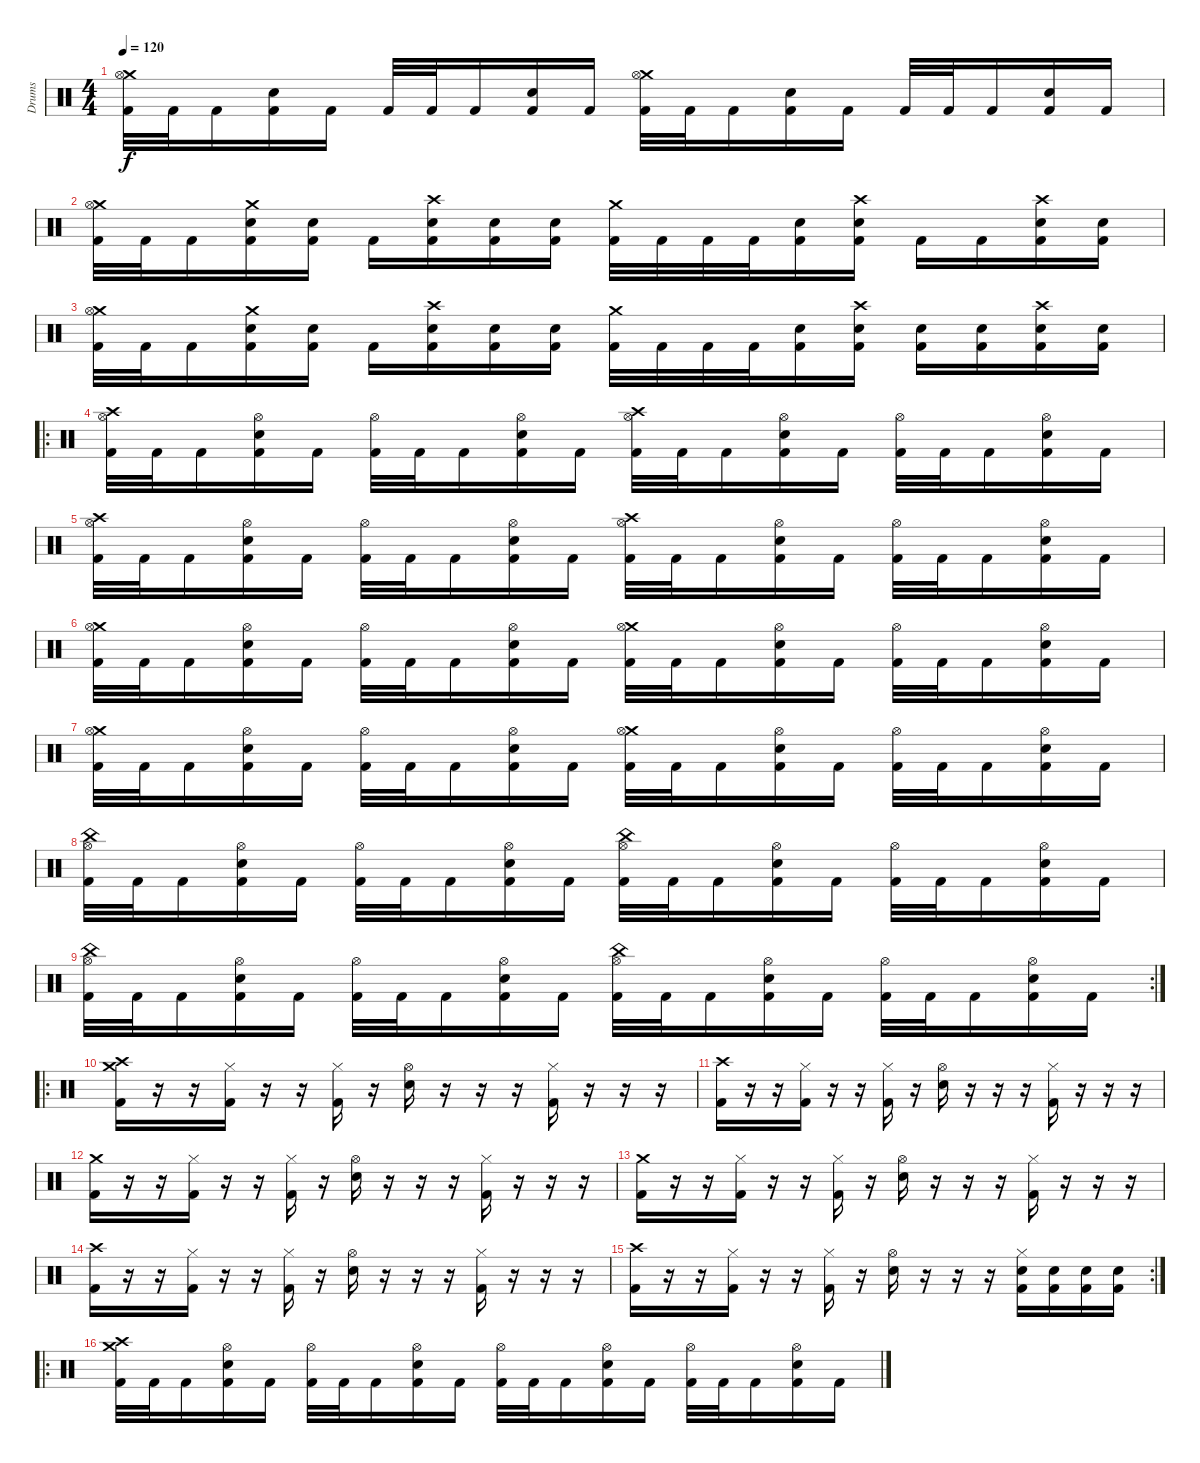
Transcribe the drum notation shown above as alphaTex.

\track ("Drums" "Drums") {instrument percussion}
\staff {score}
\articulation defaults
\ts (4 4)
\tempo 120
\clef neutral
\ks c
("Crash medium (hit)" "Hi-Hat (open)" "Kick (hit) 2").32{dy f} "Kick (hit) 2".32 "Kick (hit) 2".16 ("Electric Snare (hit)" "Kick (hit) 2").16 "Kick (hit) 2".16 "Kick (hit) 2".32 "Kick (hit) 2".32 "Kick (hit) 2".16 ("Electric Snare (hit)" "Kick (hit) 2").16 "Kick (hit) 2".16 ("Crash medium (hit)" "Hi-Hat (open)" "Kick (hit) 2").32 "Kick (hit) 2".32 "Kick (hit) 2".16 ("Electric Snare (hit)" "Kick (hit) 2").16 "Kick (hit) 2".16 "Kick (hit) 2".32 "Kick (hit) 2".32 "Kick (hit) 2".16 ("Electric Snare (hit)" "Kick (hit) 2").16 "Kick (hit) 2".16 |
("Crash medium (hit)" "Hi-Hat (open)" "Kick (hit) 2").32 "Kick (hit) 2".32 "Kick (hit) 2".16 ("Crash medium (hit)" "Electric Snare (hit)" "Kick (hit) 2").16 ("Electric Snare (hit)" "Kick (hit) 2").16 "Kick (hit) 2".16 ("Crash high (hit)" "Electric Snare (hit)" "Kick (hit) 2").16 ("Electric Snare (hit)" "Kick (hit) 2").16 ("Electric Snare (hit)" "Kick (hit) 2").16 ("Crash medium (hit)" "Kick (hit) 2").32 "Kick (hit) 2".32 "Kick (hit) 2".32 "Kick (hit) 2".32 ("Electric Snare (hit)" "Kick (hit) 2").16 ("Crash high (hit)" "Electric Snare (hit)" "Kick (hit) 2").16 "Kick (hit) 2".16 "Kick (hit) 2".16 ("Crash high (hit)" "Electric Snare (hit)" "Kick (hit) 2").16 ("Electric Snare (hit)" "Kick (hit) 2").16 |
("Crash medium (hit)" "Hi-Hat (open)" "Kick (hit) 2").32 "Kick (hit) 2".32 "Kick (hit) 2".16 ("Crash medium (hit)" "Electric Snare (hit)" "Kick (hit) 2").16 ("Electric Snare (hit)" "Kick (hit) 2").16 "Kick (hit) 2".16 ("Crash high (hit)" "Electric Snare (hit)" "Kick (hit) 2").16 ("Electric Snare (hit)" "Kick (hit) 2").16 ("Electric Snare (hit)" "Kick (hit) 2").16 ("Crash medium (hit)" "Kick (hit) 2").32 "Kick (hit) 2".32 "Kick (hit) 2".32 "Kick (hit) 2".32 ("Electric Snare (hit)" "Kick (hit) 2").16 ("Crash high (hit)" "Electric Snare (hit)" "Kick (hit) 2").16 ("Electric Snare (hit)" "Kick (hit) 2").16 ("Electric Snare (hit)" "Kick (hit) 2").16 ("Crash high (hit)" "Electric Snare (hit)" "Kick (hit) 2").16 ("Electric Snare (hit)" "Kick (hit) 2").16 |
\ro
("Crash high (hit)" "Hi-Hat (open)" "Kick (hit) 2").32 "Kick (hit) 2".32 "Kick (hit) 2".16 ("Hi-Hat (open)" "Electric Snare (hit)" "Kick (hit) 2").16 "Kick (hit) 2".16 ("Hi-Hat (open)" "Kick (hit) 2").32 "Kick (hit) 2".32 "Kick (hit) 2".16 ("Hi-Hat (open)" "Electric Snare (hit)" "Kick (hit) 2").16 "Kick (hit) 2".16 ("Crash high (hit)" "Hi-Hat (open)" "Kick (hit) 2").32 "Kick (hit) 2".32 "Kick (hit) 2".16 ("Hi-Hat (open)" "Electric Snare (hit)" "Kick (hit) 2").16 "Kick (hit) 2".16 ("Hi-Hat (open)" "Kick (hit) 2").32 "Kick (hit) 2".32 "Kick (hit) 2".16 ("Hi-Hat (open)" "Electric Snare (hit)" "Kick (hit) 2").16 "Kick (hit) 2".16 |
("Crash high (hit)" "Hi-Hat (open)" "Kick (hit) 2").32 "Kick (hit) 2".32 "Kick (hit) 2".16 ("Hi-Hat (open)" "Electric Snare (hit)" "Kick (hit) 2").16 "Kick (hit) 2".16 ("Hi-Hat (open)" "Kick (hit) 2").32 "Kick (hit) 2".32 "Kick (hit) 2".16 ("Hi-Hat (open)" "Electric Snare (hit)" "Kick (hit) 2").16 "Kick (hit) 2".16 ("Crash high (hit)" "Hi-Hat (open)" "Kick (hit) 2").32 "Kick (hit) 2".32 "Kick (hit) 2".16 ("Hi-Hat (open)" "Electric Snare (hit)" "Kick (hit) 2").16 "Kick (hit) 2".16 ("Hi-Hat (open)" "Kick (hit) 2").32 "Kick (hit) 2".32 "Kick (hit) 2".16 ("Hi-Hat (open)" "Electric Snare (hit)" "Kick (hit) 2").16 "Kick (hit) 2".16 |
("Crash medium (hit)" "Hi-Hat (open)" "Kick (hit) 2").32 "Kick (hit) 2".32 "Kick (hit) 2".16 ("Hi-Hat (open)" "Electric Snare (hit)" "Kick (hit) 2").16 "Kick (hit) 2".16 ("Hi-Hat (open)" "Kick (hit) 2").32 "Kick (hit) 2".32 "Kick (hit) 2".16 ("Hi-Hat (open)" "Electric Snare (hit)" "Kick (hit) 2").16 "Kick (hit) 2".16 ("Crash medium (hit)" "Hi-Hat (open)" "Kick (hit) 2").32 "Kick (hit) 2".32 "Kick (hit) 2".16 ("Hi-Hat (open)" "Electric Snare (hit)" "Kick (hit) 2").16 "Kick (hit) 2".16 ("Hi-Hat (open)" "Kick (hit) 2").32 "Kick (hit) 2".32 "Kick (hit) 2".16 ("Hi-Hat (open)" "Electric Snare (hit)" "Kick (hit) 2").16 "Kick (hit) 2".16 |
("Crash medium (hit)" "Hi-Hat (open)" "Kick (hit) 2").32 "Kick (hit) 2".32 "Kick (hit) 2".16 ("Hi-Hat (open)" "Electric Snare (hit)" "Kick (hit) 2").16 "Kick (hit) 2".16 ("Hi-Hat (open)" "Kick (hit) 2").32 "Kick (hit) 2".32 "Kick (hit) 2".16 ("Hi-Hat (open)" "Electric Snare (hit)" "Kick (hit) 2").16 "Kick (hit) 2".16 ("Crash medium (hit)" "Hi-Hat (open)" "Kick (hit) 2").32 "Kick (hit) 2".32 "Kick (hit) 2".16 ("Hi-Hat (open)" "Electric Snare (hit)" "Kick (hit) 2").16 "Kick (hit) 2".16 ("Hi-Hat (open)" "Kick (hit) 2").32 "Kick (hit) 2".32 "Kick (hit) 2".16 ("Hi-Hat (open)" "Electric Snare (hit)" "Kick (hit) 2").16 "Kick (hit) 2".16 |
("China (hit)" "Hi-Hat (open)" "Kick (hit) 2").32 "Kick (hit) 2".32 "Kick (hit) 2".16 ("Hi-Hat (open)" "Electric Snare (hit)" "Kick (hit) 2").16 "Kick (hit) 2".16 ("Hi-Hat (open)" "Kick (hit) 2").32 "Kick (hit) 2".32 "Kick (hit) 2".16 ("Hi-Hat (open)" "Electric Snare (hit)" "Kick (hit) 2").16 "Kick (hit) 2".16 ("China (hit)" "Hi-Hat (open)" "Kick (hit) 2").32 "Kick (hit) 2".32 "Kick (hit) 2".16 ("Hi-Hat (open)" "Electric Snare (hit)" "Kick (hit) 2").16 "Kick (hit) 2".16 ("Hi-Hat (open)" "Kick (hit) 2").32 "Kick (hit) 2".32 "Kick (hit) 2".16 ("Hi-Hat (open)" "Electric Snare (hit)" "Kick (hit) 2").16 "Kick (hit) 2".16 |
\rc 2
("China (hit)" "Hi-Hat (open)" "Kick (hit) 2").32 "Kick (hit) 2".32 "Kick (hit) 2".16 ("Hi-Hat (open)" "Electric Snare (hit)" "Kick (hit) 2").16 "Kick (hit) 2".16 ("Hi-Hat (open)" "Kick (hit) 2").32 "Kick (hit) 2".32 "Kick (hit) 2".16 ("Hi-Hat (open)" "Electric Snare (hit)" "Kick (hit) 2").16 "Kick (hit) 2".16 ("China (hit)" "Hi-Hat (open)" "Kick (hit) 2").32 "Kick (hit) 2".32 "Kick (hit) 2".16 ("Hi-Hat (open)" "Electric Snare (hit)" "Kick (hit) 2").16 "Kick (hit) 2".16 ("Hi-Hat (open)" "Kick (hit) 2").32 "Kick (hit) 2".32 "Kick (hit) 2".16 ("Hi-Hat (open)" "Electric Snare (hit)" "Kick (hit) 2").16 "Kick (hit) 2".16 |
\ro
("Crash medium (hit)" "Crash high (hit)" "Kick (hit) 2").16 r.16 r.16 ("Hi-Hat (closed)" "Kick (hit) 2").16 r.16 r.16 ("Hi-Hat (closed)" "Kick (hit) 2").16 r.16 ("Hi-Hat (open)" "Electric Snare (hit)").16 r.16 r.16 r.16 ("Hi-Hat (closed)" "Kick (hit) 2").16 r.16 r.16 r.16 |
("Crash high (hit)" "Kick (hit) 2").16 r.16 r.16 ("Hi-Hat (closed)" "Kick (hit) 2").16 r.16 r.16 ("Hi-Hat (closed)" "Kick (hit) 2").16 r.16 ("Hi-Hat (open)" "Electric Snare (hit)").16 r.16 r.16 r.16 ("Hi-Hat (closed)" "Kick (hit) 2").16 r.16 r.16 r.16 |
("Crash medium (hit)" "Kick (hit) 2").16 r.16 r.16 ("Hi-Hat (closed)" "Kick (hit) 2").16 r.16 r.16 ("Hi-Hat (closed)" "Kick (hit) 2").16 r.16 ("Hi-Hat (open)" "Electric Snare (hit)").16 r.16 r.16 r.16 ("Hi-Hat (closed)" "Kick (hit) 2").16 r.16 r.16 r.16 |
("Crash medium (hit)" "Kick (hit) 2").16 r.16 r.16 ("Hi-Hat (closed)" "Kick (hit) 2").16 r.16 r.16 ("Hi-Hat (closed)" "Kick (hit) 2").16 r.16 ("Hi-Hat (open)" "Electric Snare (hit)").16 r.16 r.16 r.16 ("Hi-Hat (closed)" "Kick (hit) 2").16 r.16 r.16 r.16 |
("Crash high (hit)" "Kick (hit) 2").16 r.16 r.16 ("Hi-Hat (closed)" "Kick (hit) 2").16 r.16 r.16 ("Hi-Hat (closed)" "Kick (hit) 2").16 r.16 ("Hi-Hat (open)" "Electric Snare (hit)").16 r.16 r.16 r.16 ("Hi-Hat (closed)" "Kick (hit) 2").16 r.16 r.16 r.16 |
\rc 2
("Crash high (hit)" "Kick (hit) 2").16 r.16 r.16 ("Hi-Hat (closed)" "Kick (hit) 2").16 r.16 r.16 ("Hi-Hat (closed)" "Kick (hit) 2").16 r.16 ("Hi-Hat (open)" "Electric Snare (hit)").16 r.16 r.16 r.16 ("Hi-Hat (closed)" "Electric Snare (hit)" "Kick (hit) 2").16 ("Electric Snare (hit)" "Kick (hit) 2").16 ("Electric Snare (hit)" "Kick (hit) 2").16 ("Electric Snare (hit)" "Kick (hit) 2").16 |
\ro
("Crash high (hit)" "Crash medium (hit)" "Kick (hit) 2").32 "Kick (hit) 2".32 "Kick (hit) 2".16 ("Hi-Hat (open)" "Electric Snare (hit)" "Kick (hit) 2").16 "Kick (hit) 2".16 ("Hi-Hat (open)" "Kick (hit) 2").32 "Kick (hit) 2".32 "Kick (hit) 2".16 ("Hi-Hat (open)" "Electric Snare (hit)" "Kick (hit) 2").16 "Kick (hit) 2".16 ("Hi-Hat (open)" "Kick (hit) 2").32 "Kick (hit) 2".32 "Kick (hit) 2".16 ("Hi-Hat (open)" "Electric Snare (hit)" "Kick (hit) 2").16 "Kick (hit) 2".16 ("Hi-Hat (open)" "Kick (hit) 2").32 "Kick (hit) 2".32 "Kick (hit) 2".16 ("Hi-Hat (open)" "Electric Snare (hit)" "Kick (hit) 2").16 "Kick (hit) 2".16
